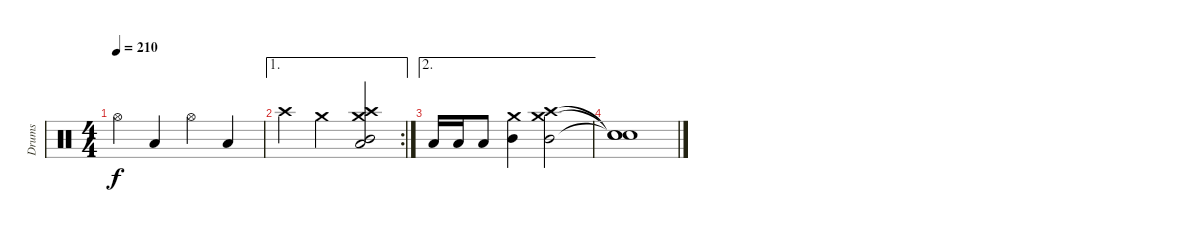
\track ("Drums" "Drums") {instrument percussion}
\staff {score}
\articulation defaults
\ts (4 4)
\tempo 210
\clef neutral
\ks c "Hi-Hat (open)".4{dy f} "Low Tom (hit)".4 "Hi-Hat (open)".4 "Low Tom (hit)".4
|
\ae 1
\rc 2 "Crash high (hit)".4 "Crash medium (hit)".4
("Crash high (hit)" "Crash medium (hit)" "Low Tom (hit)" "Mid Tom (hit)").2 |
\ae 2 "Low Tom (hit)".16 "Low Tom (hit)".16 "Low Tom (hit)".8
("Crash medium (hit)" "Mid Tom (hit)").4 ("Crash high (hit)" "Crash medium (hit)" "Mid Tom (hit)").2 |
("Snare (hit)"{t} "Snare (hit)"{t} "Snare (hit)"{t}).1
